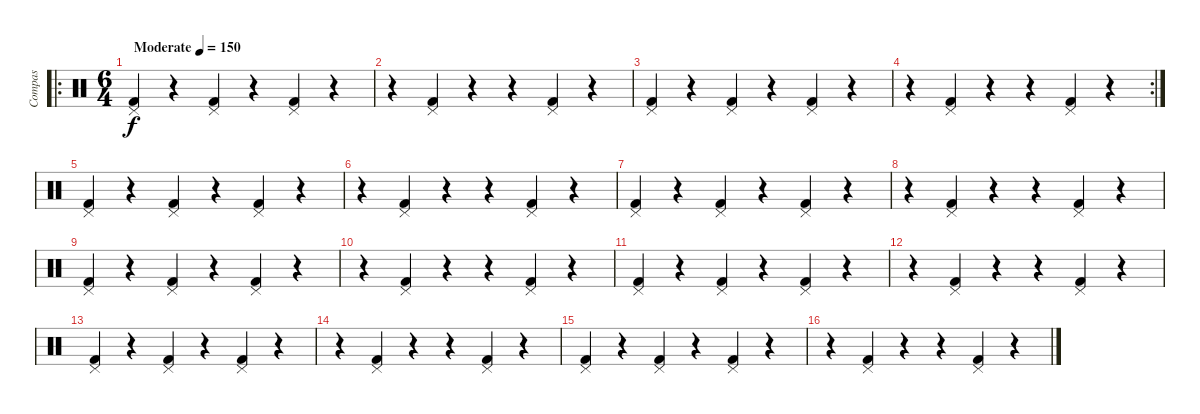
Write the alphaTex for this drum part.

\track ("Compas" "Compas") {instrument percussion}
\staff {score}
\articulation defaults
\ro
\ts (6 4)
\tempo (150 "Moderate")
\clef neutral
\ks c
("Kick (hit) 2" "Pedal Hi-Hat (hit)").4{dy f} r.4 ("Kick (hit) 2" "Pedal Hi-Hat (hit)").4 r.4 ("Kick (hit) 2" "Pedal Hi-Hat (hit)").4 r.4 |
r.4 ("Kick (hit) 2" "Pedal Hi-Hat (hit)").4 r.4 r.4 ("Kick (hit) 2" "Pedal Hi-Hat (hit)").4 r.4 |
("Kick (hit) 2" "Pedal Hi-Hat (hit)").4 r.4 ("Kick (hit) 2" "Pedal Hi-Hat (hit)").4 r.4 ("Kick (hit) 2" "Pedal Hi-Hat (hit)").4 r.4 |
\rc 2
r.4 ("Kick (hit) 2" "Pedal Hi-Hat (hit)").4 r.4 r.4 ("Kick (hit) 2" "Pedal Hi-Hat (hit)").4 r.4 |
("Kick (hit) 2" "Pedal Hi-Hat (hit)").4 r.4 ("Kick (hit) 2" "Pedal Hi-Hat (hit)").4 r.4 ("Kick (hit) 2" "Pedal Hi-Hat (hit)").4 r.4 |
r.4 ("Kick (hit) 2" "Pedal Hi-Hat (hit)").4 r.4 r.4 ("Kick (hit) 2" "Pedal Hi-Hat (hit)").4 r.4 |
("Kick (hit) 2" "Pedal Hi-Hat (hit)").4 r.4 ("Kick (hit) 2" "Pedal Hi-Hat (hit)").4 r.4 ("Kick (hit) 2" "Pedal Hi-Hat (hit)").4 r.4 |
r.4 ("Kick (hit) 2" "Pedal Hi-Hat (hit)").4 r.4 r.4 ("Kick (hit) 2" "Pedal Hi-Hat (hit)").4 r.4 |
("Kick (hit) 2" "Pedal Hi-Hat (hit)").4 r.4 ("Kick (hit) 2" "Pedal Hi-Hat (hit)").4 r.4 ("Kick (hit) 2" "Pedal Hi-Hat (hit)").4 r.4 |
r.4 ("Kick (hit) 2" "Pedal Hi-Hat (hit)").4 r.4 r.4 ("Kick (hit) 2" "Pedal Hi-Hat (hit)").4 r.4 |
("Kick (hit) 2" "Pedal Hi-Hat (hit)").4 r.4 ("Kick (hit) 2" "Pedal Hi-Hat (hit)").4 r.4 ("Kick (hit) 2" "Pedal Hi-Hat (hit)").4 r.4 |
r.4 ("Kick (hit) 2" "Pedal Hi-Hat (hit)").4 r.4 r.4 ("Kick (hit) 2" "Pedal Hi-Hat (hit)").4 r.4 |
("Kick (hit) 2" "Pedal Hi-Hat (hit)").4 r.4 ("Kick (hit) 2" "Pedal Hi-Hat (hit)").4 r.4 ("Kick (hit) 2" "Pedal Hi-Hat (hit)").4 r.4 |
r.4 ("Kick (hit) 2" "Pedal Hi-Hat (hit)").4 r.4 r.4 ("Kick (hit) 2" "Pedal Hi-Hat (hit)").4 r.4 |
("Kick (hit) 2" "Pedal Hi-Hat (hit)").4 r.4 ("Kick (hit) 2" "Pedal Hi-Hat (hit)").4 r.4 ("Kick (hit) 2" "Pedal Hi-Hat (hit)").4 r.4 |
r.4 ("Kick (hit) 2" "Pedal Hi-Hat (hit)").4 r.4 r.4 ("Kick (hit) 2" "Pedal Hi-Hat (hit)").4 r.4
